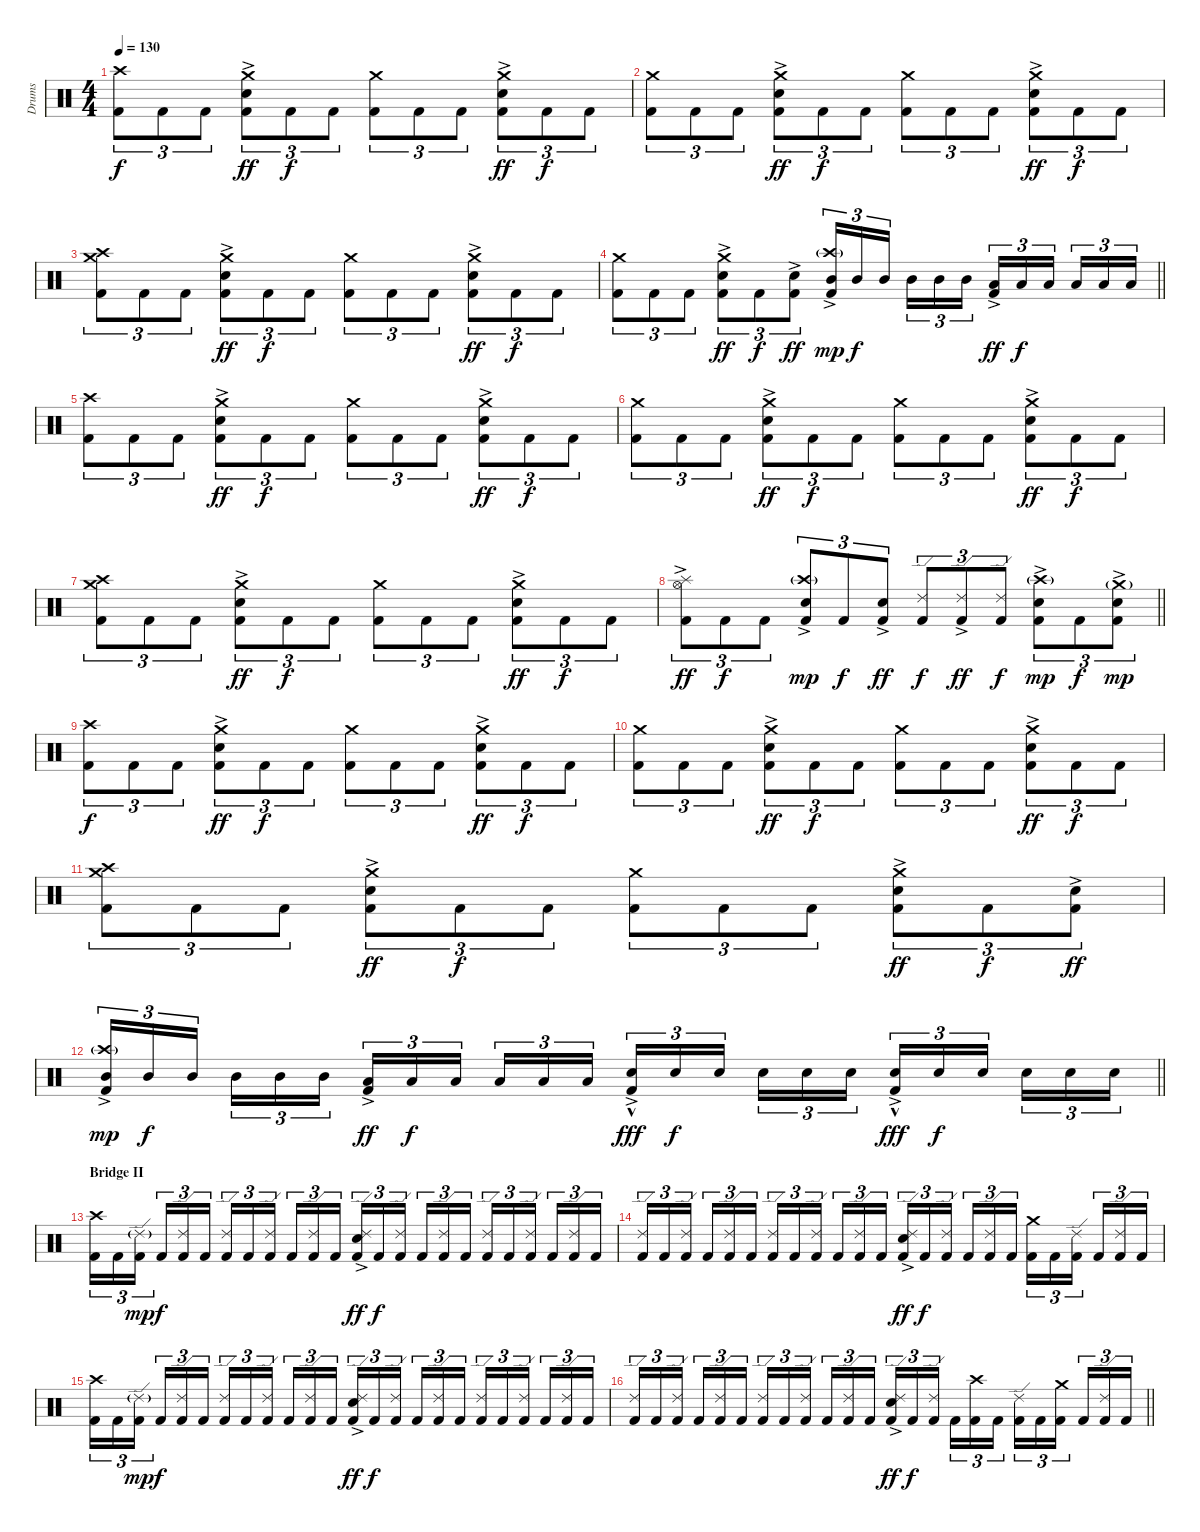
\track ("Drums" "Drums") {instrument percussion}
\staff {score}
\articulation defaults
\ts (4 4)
\section ("" "")
\tempo 130
\clef neutral
\ks c
("Kick (hit) 2" "Crash high (hit)").8{tu (3 2) dy f} "Kick (hit) 2".8{tu (3 2)} "Kick (hit) 2".8{tu (3 2)} ("Kick (hit) 2" "Snare (hit) 2"{ac} "Crash medium (hit)").8{tu (3 2) dy ff} "Kick (hit) 2".8{tu (3 2) dy f} "Kick (hit) 2".8{tu (3 2)} ("Kick (hit) 2" "Crash medium (hit)").8{tu (3 2)} "Kick (hit) 2".8{tu (3 2)} "Kick (hit) 2".8{tu (3 2)} ("Kick (hit) 2" "Snare (hit) 2"{ac} "Crash medium (hit)").8{tu (3 2) dy ff} "Kick (hit) 2".8{tu (3 2) dy f} "Kick (hit) 2".8{tu (3 2)} |
("Kick (hit) 2" "Crash medium (hit)").8{tu (3 2)} "Kick (hit) 2".8{tu (3 2)} "Kick (hit) 2".8{tu (3 2)} ("Kick (hit) 2" "Snare (hit) 2"{ac} "Crash medium (hit)").8{tu (3 2) dy ff} "Kick (hit) 2".8{tu (3 2) dy f} "Kick (hit) 2".8{tu (3 2)} ("Kick (hit) 2" "Crash medium (hit)").8{tu (3 2)} "Kick (hit) 2".8{tu (3 2)} "Kick (hit) 2".8{tu (3 2)} ("Kick (hit) 2" "Snare (hit) 2"{ac} "Crash medium (hit)").8{tu (3 2) dy ff} "Kick (hit) 2".8{tu (3 2) dy f} "Kick (hit) 2".8{tu (3 2)} |
("Kick (hit) 2" "Crash medium (hit)" "Crash high (hit)").8{tu (3 2)} "Kick (hit) 2".8{tu (3 2)} "Kick (hit) 2".8{tu (3 2)} ("Kick (hit) 2" "Snare (hit) 2"{ac} "Crash medium (hit)").8{tu (3 2) dy ff} "Kick (hit) 2".8{tu (3 2) dy f} "Kick (hit) 2".8{tu (3 2)} ("Kick (hit) 2" "Crash medium (hit)").8{tu (3 2)} "Kick (hit) 2".8{tu (3 2)} "Kick (hit) 2".8{tu (3 2)} ("Kick (hit) 2" "Snare (hit) 2"{ac} "Crash medium (hit)").8{tu (3 2) dy ff} "Kick (hit) 2".8{tu (3 2) dy f} "Kick (hit) 2".8{tu (3 2)} |
\barLineRight lightlight
("Kick (hit) 2" "Crash medium (hit)").8{tu (3 2)} "Kick (hit) 2".8{tu (3 2)} "Kick (hit) 2".8{tu (3 2)} ("Kick (hit) 2" "Snare (hit) 2"{ac} "Crash medium (hit)").8{tu (3 2) dy ff} "Kick (hit) 2".8{tu (3 2) dy f} ("Kick (hit) 2" "Snare (hit) 2"{ac}).8{tu (3 2) dy ff} ("Kick (hit) 2"{ac} "Mid Tom (hit)" "Crash high (hit)"{g}).16{tu (3 2) dy mp} "Mid Tom (hit)".16{tu (3 2) dy f} "Mid Tom (hit)".16{tu (3 2) beam splitsecondary} "Mid Tom (hit)".16{tu (3 2)} "Mid Tom (hit)".16{tu (3 2)} "Mid Tom (hit)".16{tu (3 2)} ("Kick (hit) 2"{ac} "Low Tom (hit)").16{tu (3 2) dy ff} "Low Tom (hit)".16{tu (3 2) dy f} "Low Tom (hit)".16{tu (3 2) beam splitsecondary} "Low Tom (hit)".16{tu (3 2)} "Low Tom (hit)".16{tu (3 2)} "Low Tom (hit)".16{tu (3 2)} |
\section ("" "")
("Kick (hit) 2" "Crash high (hit)").8{tu (3 2)} "Kick (hit) 2".8{tu (3 2)} "Kick (hit) 2".8{tu (3 2)} ("Kick (hit) 2" "Snare (hit) 2"{ac} "Crash medium (hit)").8{tu (3 2) dy ff} "Kick (hit) 2".8{tu (3 2) dy f} "Kick (hit) 2".8{tu (3 2)} ("Kick (hit) 2" "Crash medium (hit)").8{tu (3 2)} "Kick (hit) 2".8{tu (3 2)} "Kick (hit) 2".8{tu (3 2)} ("Kick (hit) 2" "Snare (hit) 2"{ac} "Crash medium (hit)").8{tu (3 2) dy ff} "Kick (hit) 2".8{tu (3 2) dy f} "Kick (hit) 2".8{tu (3 2)} |
("Kick (hit) 2" "Crash medium (hit)").8{tu (3 2)} "Kick (hit) 2".8{tu (3 2)} "Kick (hit) 2".8{tu (3 2)} ("Kick (hit) 2" "Snare (hit) 2"{ac} "Crash medium (hit)").8{tu (3 2) dy ff} "Kick (hit) 2".8{tu (3 2) dy f} "Kick (hit) 2".8{tu (3 2)} ("Kick (hit) 2" "Crash medium (hit)").8{tu (3 2)} "Kick (hit) 2".8{tu (3 2)} "Kick (hit) 2".8{tu (3 2)} ("Kick (hit) 2" "Snare (hit) 2"{ac} "Crash medium (hit)").8{tu (3 2) dy ff} "Kick (hit) 2".8{tu (3 2) dy f} "Kick (hit) 2".8{tu (3 2)} |
("Kick (hit) 2" "Crash medium (hit)" "Crash high (hit)").8{tu (3 2)} "Kick (hit) 2".8{tu (3 2)} "Kick (hit) 2".8{tu (3 2)} ("Kick (hit) 2" "Snare (hit) 2"{ac} "Crash medium (hit)").8{tu (3 2) dy ff} "Kick (hit) 2".8{tu (3 2) dy f} "Kick (hit) 2".8{tu (3 2)} ("Kick (hit) 2" "Crash medium (hit)").8{tu (3 2)} "Kick (hit) 2".8{tu (3 2)} "Kick (hit) 2".8{tu (3 2)} ("Kick (hit) 2" "Snare (hit) 2"{ac} "Crash medium (hit)").8{tu (3 2) dy ff} "Kick (hit) 2".8{tu (3 2) dy f} "Kick (hit) 2".8{tu (3 2)} |
\barLineRight lightlight
("Kick (hit) 2" "Splash (hit)"{ac} "Hi-Hat (open)").8{tu (3 2) dy ff} "Kick (hit) 2".8{tu (3 2) dy f} "Kick (hit) 2".8{tu (3 2)} ("Kick (hit) 2" "Snare (hit) 2"{ac} "Crash high (hit)"{g}).8{tu (3 2) dy mp} "Kick (hit) 2".8{tu (3 2) dy f} ("Kick (hit) 2" "Snare (hit) 2"{ac}).8{tu (3 2) dy ff} ("Kick (hit) 2" "Ride (edge) 2").8{tu (3 2) dy f} ("Kick (hit) 2" "Ride (edge) 2"{ac}).8{tu (3 2) dy ff} ("Kick (hit) 2" "Ride (edge) 2").8{tu (3 2) dy f} ("Kick (hit) 2" "Snare (hit) 2"{ac} "Crash high (hit)"{g}).8{tu (3 2) dy mp} "Kick (hit) 2".8{tu (3 2) dy f} ("Kick (hit) 2" "Snare (hit) 2"{ac} "Crash medium (hit)"{g}).8{tu (3 2) dy mp} |
\section ("" "")
("Kick (hit) 2" "Crash high (hit)").8{tu (3 2) dy f} "Kick (hit) 2".8{tu (3 2)} "Kick (hit) 2".8{tu (3 2)} ("Kick (hit) 2" "Snare (hit) 2"{ac} "Crash medium (hit)").8{tu (3 2) dy ff} "Kick (hit) 2".8{tu (3 2) dy f} "Kick (hit) 2".8{tu (3 2)} ("Kick (hit) 2" "Crash medium (hit)").8{tu (3 2)} "Kick (hit) 2".8{tu (3 2)} "Kick (hit) 2".8{tu (3 2)} ("Kick (hit) 2" "Snare (hit) 2"{ac} "Crash medium (hit)").8{tu (3 2) dy ff} "Kick (hit) 2".8{tu (3 2) dy f} "Kick (hit) 2".8{tu (3 2)} |
("Kick (hit) 2" "Crash medium (hit)").8{tu (3 2)} "Kick (hit) 2".8{tu (3 2)} "Kick (hit) 2".8{tu (3 2)} ("Kick (hit) 2" "Snare (hit) 2"{ac} "Crash medium (hit)").8{tu (3 2) dy ff} "Kick (hit) 2".8{tu (3 2) dy f} "Kick (hit) 2".8{tu (3 2)} ("Kick (hit) 2" "Crash medium (hit)").8{tu (3 2)} "Kick (hit) 2".8{tu (3 2)} "Kick (hit) 2".8{tu (3 2)} ("Kick (hit) 2" "Snare (hit) 2"{ac} "Crash medium (hit)").8{tu (3 2) dy ff} "Kick (hit) 2".8{tu (3 2) dy f} "Kick (hit) 2".8{tu (3 2)} |
("Kick (hit) 2" "Crash medium (hit)" "Crash high (hit)").8{tu (3 2)} "Kick (hit) 2".8{tu (3 2)} "Kick (hit) 2".8{tu (3 2)} ("Kick (hit) 2" "Snare (hit) 2"{ac} "Crash medium (hit)").8{tu (3 2) dy ff} "Kick (hit) 2".8{tu (3 2) dy f} "Kick (hit) 2".8{tu (3 2)} ("Kick (hit) 2" "Crash medium (hit)").8{tu (3 2)} "Kick (hit) 2".8{tu (3 2)} "Kick (hit) 2".8{tu (3 2)} ("Kick (hit) 2" "Snare (hit) 2"{ac} "Crash medium (hit)").8{tu (3 2) dy ff} "Kick (hit) 2".8{tu (3 2) dy f} ("Kick (hit) 2" "Snare (hit) 2"{ac}).8{tu (3 2) dy ff} |
\barLineRight lightlight
("Kick (hit) 2"{ac} "Mid Tom (hit)" "Crash high (hit)"{g}).16{tu (3 2) dy mp} "Mid Tom (hit)".16{tu (3 2) dy f} "Mid Tom (hit)".16{tu (3 2) beam splitsecondary} "Mid Tom (hit)".16{tu (3 2)} "Mid Tom (hit)".16{tu (3 2)} "Mid Tom (hit)".16{tu (3 2)} ("Kick (hit) 2"{ac} "Low Tom (hit)").16{tu (3 2) dy ff} "Low Tom (hit)".16{tu (3 2) dy f} "Low Tom (hit)".16{tu (3 2) beam splitsecondary} "Low Tom (hit)".16{tu (3 2)} "Low Tom (hit)".16{tu (3 2)} "Low Tom (hit)".16{tu (3 2)} ("Kick (hit) 2"{ac} "Snare (hit) 2"{hac}).16{tu (3 2) dy fff} "Snare (hit) 2".16{tu (3 2) dy f} "Snare (hit) 2".16{tu (3 2) beam splitsecondary} "Snare (hit) 2".16{tu (3 2)} "Snare (hit) 2".16{tu (3 2)} "Snare (hit) 2".16{tu (3 2)} ("Kick (hit) 2"{ac} "Snare (hit) 2"{hac}).16{tu (3 2) dy fff} "Snare (hit) 2".16{tu (3 2) dy f} "Snare (hit) 2".16{tu (3 2) beam splitsecondary} "Snare (hit) 2".16{tu (3 2)} "Snare (hit) 2".16{tu (3 2)} "Snare (hit) 2".16{tu (3 2)} |
\section ("" "Bridge II")
("Kick (hit) 2" "Crash high (hit)").16{tu (3 2)} "Kick (hit) 2".16{tu (3 2)} ("Kick (hit) 2" "Ride (edge) 2"{g}).16{tu (3 2) dy mp beam splitsecondary} "Kick (hit) 2".16{tu (3 2) dy f} ("Kick (hit) 2" "Ride (edge) 2").16{tu (3 2)} "Kick (hit) 2".16{tu (3 2)} ("Kick (hit) 2" "Ride (edge) 2").16{tu (3 2)} "Kick (hit) 2".16{tu (3 2)} ("Kick (hit) 2" "Ride (edge) 2").16{tu (3 2) beam splitsecondary} "Kick (hit) 2".16{tu (3 2)} ("Kick (hit) 2" "Ride (edge) 2").16{tu (3 2)} "Kick (hit) 2".16{tu (3 2)} ("Kick (hit) 2" "Snare (hit) 2"{ac} "Ride (edge) 2").16{tu (3 2) dy ff} "Kick (hit) 2".16{tu (3 2) dy f} ("Kick (hit) 2" "Ride (edge) 2").16{tu (3 2) beam splitsecondary} "Kick (hit) 2".16{tu (3 2)} ("Kick (hit) 2" "Ride (edge) 2").16{tu (3 2)} "Kick (hit) 2".16{tu (3 2)} ("Kick (hit) 2" "Ride (edge) 2").16{tu (3 2)} "Kick (hit) 2".16{tu (3 2)} ("Kick (hit) 2" "Ride (edge) 2").16{tu (3 2) beam splitsecondary} "Kick (hit) 2".16{tu (3 2)} ("Kick (hit) 2" "Ride (edge) 2").16{tu (3 2)} "Kick (hit) 2".16{tu (3 2)} |
("Kick (hit) 2" "Ride (edge) 2").16{tu (3 2)} "Kick (hit) 2".16{tu (3 2)} ("Kick (hit) 2" "Ride (edge) 2").16{tu (3 2) beam splitsecondary} "Kick (hit) 2".16{tu (3 2)} ("Kick (hit) 2" "Ride (edge) 2").16{tu (3 2)} "Kick (hit) 2".16{tu (3 2)} ("Kick (hit) 2" "Ride (edge) 2").16{tu (3 2)} "Kick (hit) 2".16{tu (3 2)} ("Kick (hit) 2" "Ride (edge) 2").16{tu (3 2) beam splitsecondary} "Kick (hit) 2".16{tu (3 2)} ("Kick (hit) 2" "Ride (edge) 2").16{tu (3 2)} "Kick (hit) 2".16{tu (3 2)} ("Kick (hit) 2" "Snare (hit) 2"{ac} "Ride (edge) 2").16{tu (3 2) dy ff} "Kick (hit) 2".16{tu (3 2) dy f} ("Kick (hit) 2" "Ride (edge) 2").16{tu (3 2) beam splitsecondary} "Kick (hit) 2".16{tu (3 2)} ("Kick (hit) 2" "Ride (edge) 2").16{tu (3 2)} "Kick (hit) 2".16{tu (3 2)} ("Kick (hit) 2" "Crash medium (hit)").16{tu (3 2)} "Kick (hit) 2".16{tu (3 2)} ("Kick (hit) 2" "Ride (edge) 2").16{tu (3 2) beam splitsecondary} "Kick (hit) 2".16{tu (3 2)} ("Kick (hit) 2" "Ride (edge) 2").16{tu (3 2)} "Kick (hit) 2".16{tu (3 2)} |
("Kick (hit) 2" "Crash high (hit)").16{tu (3 2)} "Kick (hit) 2".16{tu (3 2)} ("Kick (hit) 2" "Ride (edge) 2"{g}).16{tu (3 2) dy mp beam splitsecondary} "Kick (hit) 2".16{tu (3 2) dy f} ("Kick (hit) 2" "Ride (edge) 2").16{tu (3 2)} "Kick (hit) 2".16{tu (3 2)} ("Kick (hit) 2" "Ride (edge) 2").16{tu (3 2)} "Kick (hit) 2".16{tu (3 2)} ("Kick (hit) 2" "Ride (edge) 2").16{tu (3 2) beam splitsecondary} "Kick (hit) 2".16{tu (3 2)} ("Kick (hit) 2" "Ride (edge) 2").16{tu (3 2)} "Kick (hit) 2".16{tu (3 2)} ("Kick (hit) 2" "Snare (hit) 2"{ac} "Ride (edge) 2").16{tu (3 2) dy ff} "Kick (hit) 2".16{tu (3 2) dy f} ("Kick (hit) 2" "Ride (edge) 2").16{tu (3 2) beam splitsecondary} "Kick (hit) 2".16{tu (3 2)} ("Kick (hit) 2" "Ride (edge) 2").16{tu (3 2)} "Kick (hit) 2".16{tu (3 2)} ("Kick (hit) 2" "Ride (edge) 2").16{tu (3 2)} "Kick (hit) 2".16{tu (3 2)} ("Kick (hit) 2" "Ride (edge) 2").16{tu (3 2) beam splitsecondary} "Kick (hit) 2".16{tu (3 2)} ("Kick (hit) 2" "Ride (edge) 2").16{tu (3 2)} "Kick (hit) 2".16{tu (3 2)} |
\barLineRight lightlight
("Kick (hit) 2" "Ride (edge) 2").16{tu (3 2)} "Kick (hit) 2".16{tu (3 2)} ("Kick (hit) 2" "Ride (edge) 2").16{tu (3 2) beam splitsecondary} "Kick (hit) 2".16{tu (3 2)} ("Kick (hit) 2" "Ride (edge) 2").16{tu (3 2)} "Kick (hit) 2".16{tu (3 2)} ("Kick (hit) 2" "Ride (edge) 2").16{tu (3 2)} "Kick (hit) 2".16{tu (3 2)} ("Kick (hit) 2" "Ride (edge) 2").16{tu (3 2) beam splitsecondary} "Kick (hit) 2".16{tu (3 2)} ("Kick (hit) 2" "Ride (edge) 2").16{tu (3 2)} "Kick (hit) 2".16{tu (3 2)} ("Kick (hit) 2" "Snare (hit) 2"{ac} "Ride (edge) 2").16{tu (3 2) dy ff} "Kick (hit) 2".16{tu (3 2) dy f} ("Kick (hit) 2" "Ride (edge) 2").16{tu (3 2) beam splitsecondary} "Kick (hit) 2".16{tu (3 2)} ("Kick (hit) 2" "Crash high (hit)").16{tu (3 2)} "Kick (hit) 2".16{tu (3 2)} ("Kick (hit) 2" "Ride (edge) 2").16{tu (3 2)} "Kick (hit) 2".16{tu (3 2)} ("Kick (hit) 2" "Crash medium (hit)").16{tu (3 2) beam splitsecondary} "Kick (hit) 2".16{tu (3 2)} ("Kick (hit) 2" "Ride (edge) 2").16{tu (3 2)} "Kick (hit) 2".16{tu (3 2)}
